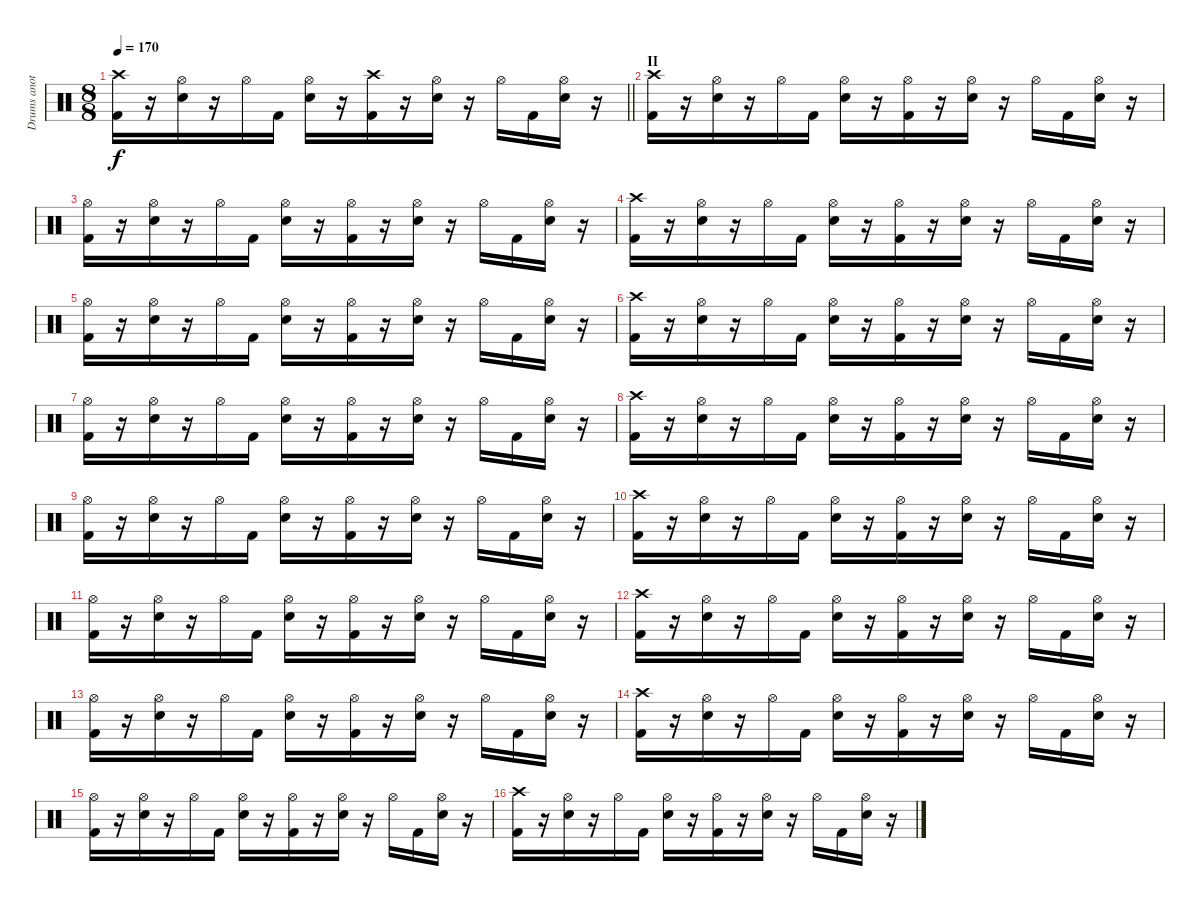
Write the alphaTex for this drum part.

\track ("Drums another version" "Drums anot") {mute instrument percussion}
\staff {score}
\articulation defaults
\ts (8 8)
\tempo 170
\clef neutral
\barLineRight lightlight
\ks c
("Crash high (hit)" "Kick (hit) 2").16{dy f} r.16 ("Hi-Hat (open)" "Snare (hit) 2").16 r.16 "Hi-Hat (open)".16 "Kick (hit) 2".16 ("Hi-Hat (open)" "Snare (hit) 2").16 r.16 ("Crash high (hit)" "Kick (hit) 2").16 r.16 ("Hi-Hat (open)" "Snare (hit) 2").16 r.16 "Hi-Hat (open)".16 "Kick (hit) 2".16 ("Hi-Hat (open)" "Snare (hit) 2").16 r.16 |
\section ("" "II")
("Crash high (hit)" "Kick (hit) 2").16 r.16 ("Hi-Hat (open)" "Snare (hit) 2").16 r.16 "Hi-Hat (open)".16 "Kick (hit) 2".16 ("Hi-Hat (open)" "Snare (hit) 2").16 r.16 ("Hi-Hat (open)" "Kick (hit) 2").16 r.16 ("Hi-Hat (open)" "Snare (hit) 2").16 r.16 "Hi-Hat (open)".16 "Kick (hit) 2".16 ("Hi-Hat (open)" "Snare (hit) 2").16 r.16 |
("Hi-Hat (open)" "Kick (hit) 2").16 r.16 ("Hi-Hat (open)" "Snare (hit) 2").16 r.16 "Hi-Hat (open)".16 "Kick (hit) 2".16 ("Hi-Hat (open)" "Snare (hit) 2").16 r.16 ("Hi-Hat (open)" "Kick (hit) 2").16 r.16 ("Hi-Hat (open)" "Snare (hit) 2").16 r.16 "Hi-Hat (open)".16 "Kick (hit) 2".16 ("Hi-Hat (open)" "Snare (hit) 2").16 r.16 |
("Crash high (hit)" "Kick (hit) 2").16 r.16 ("Hi-Hat (open)" "Snare (hit) 2").16 r.16 "Hi-Hat (open)".16 "Kick (hit) 2".16 ("Hi-Hat (open)" "Snare (hit) 2").16 r.16 ("Hi-Hat (open)" "Kick (hit) 2").16 r.16 ("Hi-Hat (open)" "Snare (hit) 2").16 r.16 "Hi-Hat (open)".16 "Kick (hit) 2".16 ("Hi-Hat (open)" "Snare (hit) 2").16 r.16 |
("Hi-Hat (open)" "Kick (hit) 2").16 r.16 ("Hi-Hat (open)" "Snare (hit) 2").16 r.16 "Hi-Hat (open)".16 "Kick (hit) 2".16 ("Hi-Hat (open)" "Snare (hit) 2").16 r.16 ("Hi-Hat (open)" "Kick (hit) 2").16 r.16 ("Hi-Hat (open)" "Snare (hit) 2").16 r.16 "Hi-Hat (open)".16 "Kick (hit) 2".16 ("Hi-Hat (open)" "Snare (hit) 2").16 r.16 |
("Crash high (hit)" "Kick (hit) 2").16 r.16 ("Hi-Hat (open)" "Snare (hit) 2").16 r.16 "Hi-Hat (open)".16 "Kick (hit) 2".16 ("Hi-Hat (open)" "Snare (hit) 2").16 r.16 ("Hi-Hat (open)" "Kick (hit) 2").16 r.16 ("Hi-Hat (open)" "Snare (hit) 2").16 r.16 "Hi-Hat (open)".16 "Kick (hit) 2".16 ("Hi-Hat (open)" "Snare (hit) 2").16 r.16 |
("Hi-Hat (open)" "Kick (hit) 2").16 r.16 ("Hi-Hat (open)" "Snare (hit) 2").16 r.16 "Hi-Hat (open)".16 "Kick (hit) 2".16 ("Hi-Hat (open)" "Snare (hit) 2").16 r.16 ("Hi-Hat (open)" "Kick (hit) 2").16 r.16 ("Hi-Hat (open)" "Snare (hit) 2").16 r.16 "Hi-Hat (open)".16 "Kick (hit) 2".16 ("Hi-Hat (open)" "Snare (hit) 2").16 r.16 |
("Crash high (hit)" "Kick (hit) 2").16 r.16 ("Hi-Hat (open)" "Snare (hit) 2").16 r.16 "Hi-Hat (open)".16 "Kick (hit) 2".16 ("Hi-Hat (open)" "Snare (hit) 2").16 r.16 ("Hi-Hat (open)" "Kick (hit) 2").16 r.16 ("Hi-Hat (open)" "Snare (hit) 2").16 r.16 "Hi-Hat (open)".16 "Kick (hit) 2".16 ("Hi-Hat (open)" "Snare (hit) 2").16 r.16 |
("Hi-Hat (open)" "Kick (hit) 2").16 r.16 ("Hi-Hat (open)" "Snare (hit) 2").16 r.16 "Hi-Hat (open)".16 "Kick (hit) 2".16 ("Hi-Hat (open)" "Snare (hit) 2").16 r.16 ("Hi-Hat (open)" "Kick (hit) 2").16 r.16 ("Hi-Hat (open)" "Snare (hit) 2").16 r.16 "Hi-Hat (open)".16 "Kick (hit) 2".16 ("Hi-Hat (open)" "Snare (hit) 2").16 r.16 |
("Crash high (hit)" "Kick (hit) 2").16 r.16 ("Hi-Hat (open)" "Snare (hit) 2").16 r.16 "Hi-Hat (open)".16 "Kick (hit) 2".16 ("Hi-Hat (open)" "Snare (hit) 2").16 r.16 ("Hi-Hat (open)" "Kick (hit) 2").16 r.16 ("Hi-Hat (open)" "Snare (hit) 2").16 r.16 "Hi-Hat (open)".16 "Kick (hit) 2".16 ("Hi-Hat (open)" "Snare (hit) 2").16 r.16 |
("Hi-Hat (open)" "Kick (hit) 2").16 r.16 ("Hi-Hat (open)" "Snare (hit) 2").16 r.16 "Hi-Hat (open)".16 "Kick (hit) 2".16 ("Hi-Hat (open)" "Snare (hit) 2").16 r.16 ("Hi-Hat (open)" "Kick (hit) 2").16 r.16 ("Hi-Hat (open)" "Snare (hit) 2").16 r.16 "Hi-Hat (open)".16 "Kick (hit) 2".16 ("Hi-Hat (open)" "Snare (hit) 2").16 r.16 |
("Crash high (hit)" "Kick (hit) 2").16 r.16 ("Hi-Hat (open)" "Snare (hit) 2").16 r.16 "Hi-Hat (open)".16 "Kick (hit) 2".16 ("Hi-Hat (open)" "Snare (hit) 2").16 r.16 ("Hi-Hat (open)" "Kick (hit) 2").16 r.16 ("Hi-Hat (open)" "Snare (hit) 2").16 r.16 "Hi-Hat (open)".16 "Kick (hit) 2".16 ("Hi-Hat (open)" "Snare (hit) 2").16 r.16 |
("Hi-Hat (open)" "Kick (hit) 2").16 r.16 ("Hi-Hat (open)" "Snare (hit) 2").16 r.16 "Hi-Hat (open)".16 "Kick (hit) 2".16 ("Hi-Hat (open)" "Snare (hit) 2").16 r.16 ("Hi-Hat (open)" "Kick (hit) 2").16 r.16 ("Hi-Hat (open)" "Snare (hit) 2").16 r.16 "Hi-Hat (open)".16 "Kick (hit) 2".16 ("Hi-Hat (open)" "Snare (hit) 2").16 r.16 |
("Crash high (hit)" "Kick (hit) 2").16 r.16 ("Hi-Hat (open)" "Snare (hit) 2").16 r.16 "Hi-Hat (open)".16 "Kick (hit) 2".16 ("Hi-Hat (open)" "Snare (hit) 2").16 r.16 ("Hi-Hat (open)" "Kick (hit) 2").16 r.16 ("Hi-Hat (open)" "Snare (hit) 2").16 r.16 "Hi-Hat (open)".16 "Kick (hit) 2".16 ("Hi-Hat (open)" "Snare (hit) 2").16 r.16 |
("Hi-Hat (open)" "Kick (hit) 2").16 r.16 ("Hi-Hat (open)" "Snare (hit) 2").16 r.16 "Hi-Hat (open)".16 "Kick (hit) 2".16 ("Hi-Hat (open)" "Snare (hit) 2").16 r.16 ("Hi-Hat (open)" "Kick (hit) 2").16 r.16 ("Hi-Hat (open)" "Snare (hit) 2").16 r.16 "Hi-Hat (open)".16 "Kick (hit) 2".16 ("Hi-Hat (open)" "Snare (hit) 2").16 r.16 |
("Crash high (hit)" "Kick (hit) 2").16 r.16 ("Hi-Hat (open)" "Snare (hit) 2").16 r.16 "Hi-Hat (open)".16 "Kick (hit) 2".16 ("Hi-Hat (open)" "Snare (hit) 2").16 r.16 ("Hi-Hat (open)" "Kick (hit) 2").16 r.16 ("Hi-Hat (open)" "Snare (hit) 2").16 r.16 "Hi-Hat (open)".16 "Kick (hit) 2".16 ("Hi-Hat (open)" "Snare (hit) 2").16 r.16
